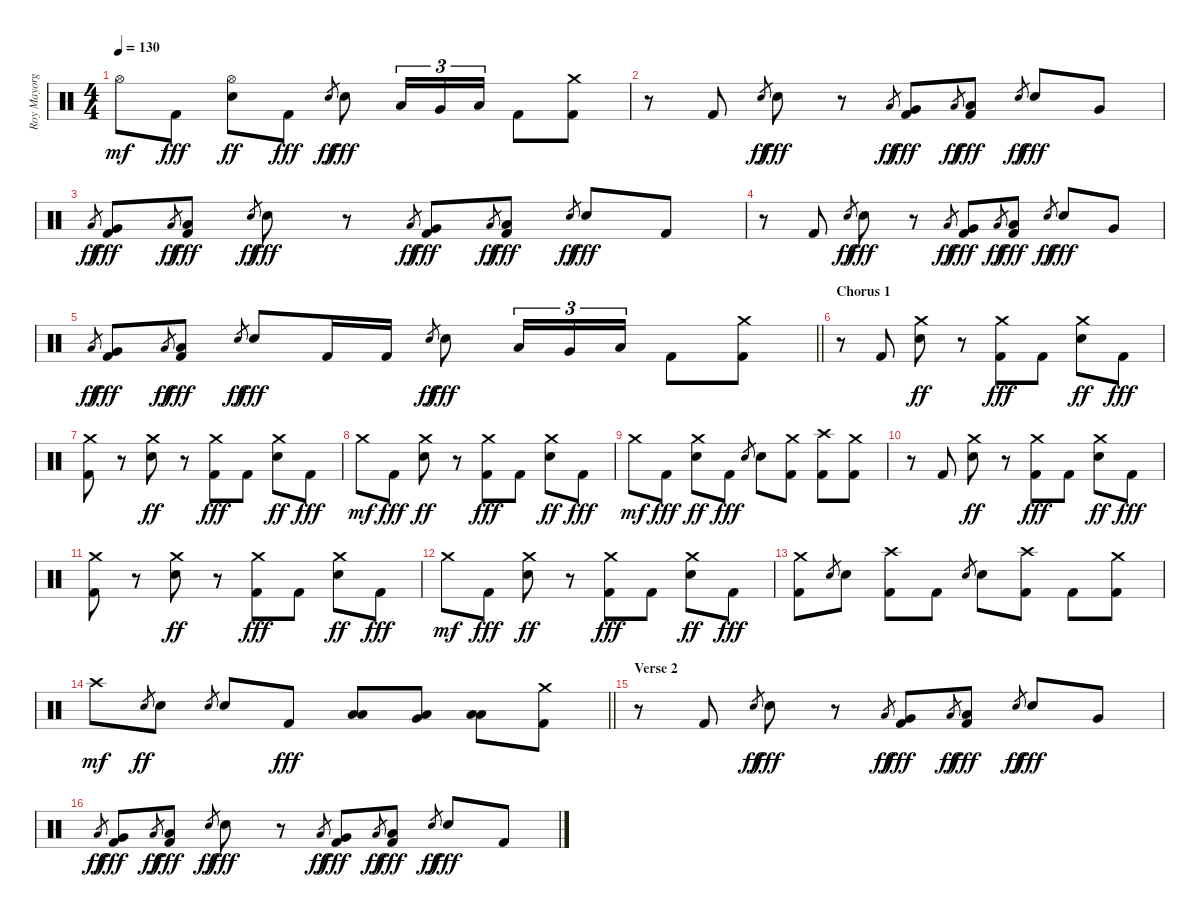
\track ("Roy Mayorga" "Roy Mayorg") {instrument percussion}
\staff {score}
\articulation defaults
\ts (4 4)
\tempo 130
\clef neutral
\ks c "Hi-Hat (open)".8{dy mf} "Kick (hit) 2".8{dy fff}
("Hi-Hat (open)" "Electric Snare (hit)").8{dy ff} "Kick (hit) 2".8{dy fff} "Electric Snare (hit)".8{gr dy ff} "Electric Snare (hit)".8{dy fff} "Low Tom (hit)".16{tu (3 2)} "Very Low Tom (hit)".16{tu (3 2)} "Low Floor Tom (hit)".16{tu (3 2)} "Kick (hit) 2".8 ("Crash medium (hit)" "Kick (hit) 2").8 |
r.8 "Kick (hit) 2".8 "Electric Snare (hit)".8{gr dy ff} "Electric Snare (hit)".8{dy fff} r.8 "Low Floor Tom (hit)".8{gr dy ff} ("Very Low Tom (hit)" "Kick (hit) 2").8{dy fff} "Low Floor Tom (hit)".8{gr dy ff} ("Low Floor Tom (hit)" "Kick (hit) 2").8{dy fff} "Electric Snare (hit)".8{gr dy ff} "Electric Snare (hit)".8{dy fff} "Very Low Tom (hit)".8 |
"Low Floor Tom (hit)".8{gr dy ff} ("Very Low Tom (hit)" "Kick (hit) 2").8{dy fff} "Low Floor Tom (hit)".8{gr dy ff} ("Low Floor Tom (hit)" "Kick (hit) 2").8{dy fff} "Electric Snare (hit)".8{gr dy ff} "Electric Snare (hit)".8{dy fff} r.8 "Low Floor Tom (hit)".8{gr dy ff} ("Very Low Tom (hit)" "Kick (hit) 2").8{dy fff} "Low Floor Tom (hit)".8{gr dy ff} ("Low Floor Tom (hit)" "Kick (hit) 2").8{dy fff} "Electric Snare (hit)".8{gr dy ff} "Electric Snare (hit)".8{dy fff} "Kick (hit) 2".8 |
r.8 "Kick (hit) 2".8 "Electric Snare (hit)".8{gr dy ff} "Electric Snare (hit)".8{dy fff} r.8 "Low Floor Tom (hit)".8{gr dy ff} ("Very Low Tom (hit)" "Kick (hit) 2").8{dy fff} "Low Floor Tom (hit)".8{gr dy ff} ("Low Floor Tom (hit)" "Kick (hit) 2").8{dy fff} "Electric Snare (hit)".8{gr dy ff} "Electric Snare (hit)".8{dy fff} "Very Low Tom (hit)".8 |
\barLineRight lightlight "Low Floor Tom (hit)".8{gr dy ff}
("Very Low Tom (hit)" "Kick (hit) 2").8{dy fff} "Low Floor Tom (hit)".8{gr dy ff} ("Low Floor Tom (hit)" "Kick (hit) 2").8{dy fff} "Electric Snare (hit)".8{gr dy ff} "Electric Snare (hit)".8{dy fff} "Kick (hit) 2".16 "Kick (hit) 2".16 "Electric Snare (hit)".8{gr dy ff} "Electric Snare (hit)".8{dy fff} "Low Tom (hit)".16{tu (3 2)} "Very Low Tom (hit)".16{tu (3 2)} "Low Floor Tom (hit)".16{tu (3 2)} "Kick (hit) 2".8 ("Crash medium (hit)" "Kick (hit) 2").8 |
\section ("" "Chorus 1")
r.8 "Kick (hit) 2".8 ("Crash medium (hit)" "Electric Snare (hit)").8{dy ff} r.8 ("Crash medium (hit)" "Kick (hit) 2").8{dy fff} "Kick (hit) 2".8 ("Crash medium (hit)" "Electric Snare (hit)").8{dy ff} "Kick (hit) 2".8{dy fff} |
("Crash medium (hit)" "Kick (hit) 2").8 r.8 ("Crash medium (hit)" "Electric Snare (hit)").8{dy ff} r.8 ("Crash medium (hit)" "Kick (hit) 2").8{dy fff} "Kick (hit) 2".8 ("Crash medium (hit)" "Electric Snare (hit)").8{dy ff} "Kick (hit) 2".8{dy fff} |
"Crash medium (hit)".8{dy mf} "Kick (hit) 2".8{dy fff} ("Crash medium (hit)" "Electric Snare (hit)").8{dy ff} r.8 ("Crash medium (hit)" "Kick (hit) 2").8{dy fff} "Kick (hit) 2".8 ("Crash medium (hit)" "Electric Snare (hit)").8{dy ff} "Kick (hit) 2".8{dy fff} |
"Crash medium (hit)".8{dy mf} "Kick (hit) 2".8{dy fff} ("Crash medium (hit)" "Electric Snare (hit)").8{dy ff} "Kick (hit) 2".8{dy fff} "Electric Snare (hit)".8{gr} "Electric Snare (hit)".8 ("Crash medium (hit)" "Kick (hit) 2").8 ("Crash high (hit)" "Kick (hit) 2").8 ("Crash medium (hit)" "Kick (hit) 2").8 |
r.8 "Kick (hit) 2".8 ("Crash medium (hit)" "Electric Snare (hit)").8{dy ff} r.8 ("Crash medium (hit)" "Kick (hit) 2").8{dy fff} "Kick (hit) 2".8 ("Crash medium (hit)" "Electric Snare (hit)").8{dy ff} "Kick (hit) 2".8{dy fff} |
("Crash medium (hit)" "Kick (hit) 2").8 r.8 ("Crash medium (hit)" "Electric Snare (hit)").8{dy ff} r.8 ("Crash medium (hit)" "Kick (hit) 2").8{dy fff} "Kick (hit) 2".8 ("Crash medium (hit)" "Electric Snare (hit)").8{dy ff} "Kick (hit) 2".8{dy fff} |
"Crash medium (hit)".8{dy mf} "Kick (hit) 2".8{dy fff} ("Crash medium (hit)" "Electric Snare (hit)").8{dy ff} r.8 ("Crash medium (hit)" "Kick (hit) 2").8{dy fff} "Kick (hit) 2".8 ("Crash medium (hit)" "Electric Snare (hit)").8{dy ff} "Kick (hit) 2".8{dy fff} |
("Crash medium (hit)" "Kick (hit) 2").8 "Electric Snare (hit)".8{gr} "Electric Snare (hit)".8 ("Crash high (hit)" "Kick (hit) 2").8 "Kick (hit) 2".8 "Electric Snare (hit)".8{gr} "Electric Snare (hit)".8 ("Crash high (hit)" "Kick (hit) 2").8 "Kick (hit) 2".8 ("Crash medium (hit)" "Kick (hit) 2").8 |
\barLineRight lightlight "Crash high (hit)".8{dy mf} "Electric Snare (hit)".8{gr dy ff} "Electric Snare (hit)".8 "Electric Snare (hit)".8{gr} "Electric Snare (hit)".8 "Kick (hit) 2".8{dy fff}
("Low Tom (hit)" "Low Floor Tom (hit)").8 ("Very Low Tom (hit)" "Low Floor Tom (hit)").8 ("Low Floor Tom (hit)" "Low Floor Tom (hit)").8 ("Crash medium (hit)" "Kick (hit) 2").8 |
\section ("" "Verse 2")
r.8 "Kick (hit) 2".8 "Electric Snare (hit)".8{gr dy ff} "Electric Snare (hit)".8{dy fff} r.8 "Low Floor Tom (hit)".8{gr dy ff} ("Very Low Tom (hit)" "Kick (hit) 2").8{dy fff} "Low Floor Tom (hit)".8{gr dy ff} ("Low Floor Tom (hit)" "Kick (hit) 2").8{dy fff} "Electric Snare (hit)".8{gr dy ff} "Electric Snare (hit)".8{dy fff} "Very Low Tom (hit)".8 |
"Low Floor Tom (hit)".8{gr dy ff} ("Very Low Tom (hit)" "Kick (hit) 2").8{dy fff} "Low Floor Tom (hit)".8{gr dy ff} ("Low Floor Tom (hit)" "Kick (hit) 2").8{dy fff} "Electric Snare (hit)".8{gr dy ff} "Electric Snare (hit)".8{dy fff} r.8 "Low Floor Tom (hit)".8{gr dy ff} ("Very Low Tom (hit)" "Kick (hit) 2").8{dy fff} "Low Floor Tom (hit)".8{gr dy ff} ("Low Floor Tom (hit)" "Kick (hit) 2").8{dy fff} "Electric Snare (hit)".8{gr dy ff} "Electric Snare (hit)".8{dy fff} "Kick (hit) 2".8
